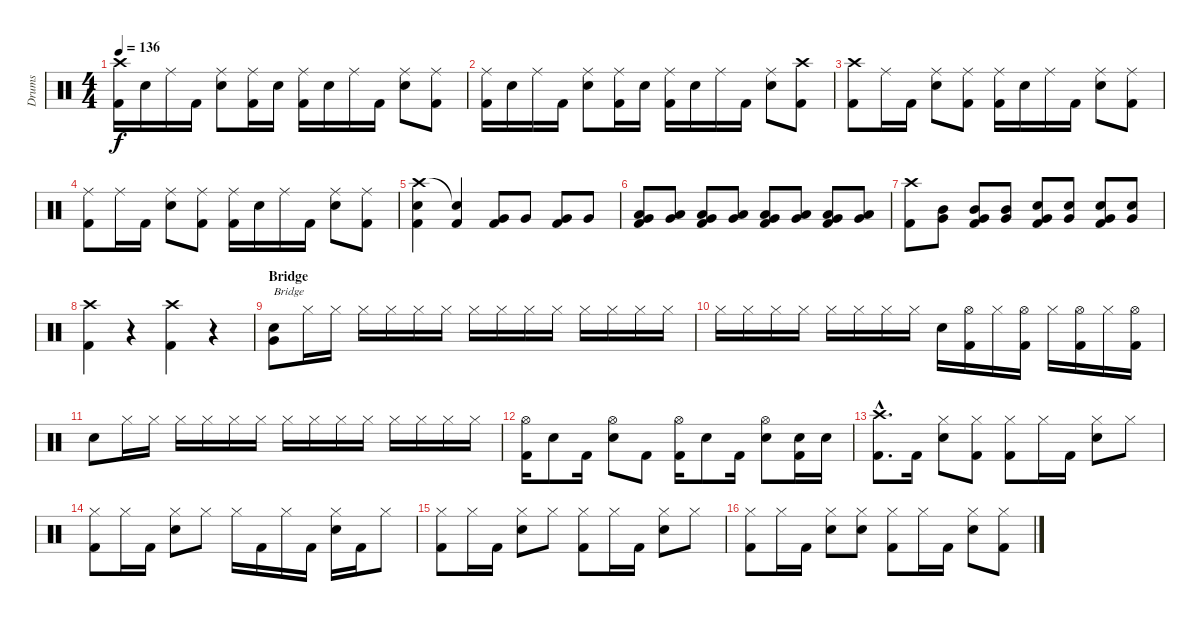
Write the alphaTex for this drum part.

\track ("Drums" "Drums") {instrument percussion}
\staff {score}
\articulation defaults
\ts (4 4)
\tempo 136
\clef neutral
\ks c
("Crash high (hit)" "Kick (hit) 2").16{dy f} "Electric Snare (hit)".16 "Ride (middle)".16 "Kick (hit) 2".16 ("Ride (middle)" "Electric Snare (hit)").8 ("Ride (middle)" "Kick (hit) 2").16 "Electric Snare (hit)".16 ("Ride (middle)" "Kick (hit) 2").16 "Electric Snare (hit)".16 "Ride (middle)".16 "Kick (hit) 2".16 ("Ride (middle)" "Electric Snare (hit)").8 ("Ride (middle)" "Kick (hit) 2").8 |
("Ride (middle)" "Kick (hit) 2").16 "Electric Snare (hit)".16 "Ride (middle)".16 "Kick (hit) 2".16 ("Ride (middle)" "Electric Snare (hit)").8 ("Ride (middle)" "Kick (hit) 2").16 "Electric Snare (hit)".16 ("Ride (middle)" "Kick (hit) 2").16 "Electric Snare (hit)".16 "Ride (middle)".16 "Kick (hit) 2".16 ("Ride (middle)" "Electric Snare (hit)").8 ("Crash high (hit)" "Kick (hit) 2").8 |
("Crash high (hit)" "Kick (hit) 2").8 "Ride (middle)".16 "Kick (hit) 2".16 ("Ride (middle)" "Electric Snare (hit)").8 ("Ride (middle)" "Kick (hit) 2").8 ("Ride (middle)" "Kick (hit) 2").16 "Electric Snare (hit)".16 "Ride (middle)".16 "Kick (hit) 2".16 ("Ride (middle)" "Electric Snare (hit)").8 ("Ride (middle)" "Kick (hit) 2").8 |
("Ride (middle)" "Kick (hit) 2").8 "Ride (middle)".16 "Kick (hit) 2".16 ("Ride (middle)" "Electric Snare (hit)").8 ("Ride (middle)" "Kick (hit) 2").8 ("Ride (middle)" "Kick (hit) 2").16 "Electric Snare (hit)".16 "Ride (middle)".16 "Kick (hit) 2".16 ("Ride (middle)" "Electric Snare (hit)").8 ("Ride (middle)" "Kick (hit) 2").8 |
("Crash high (hit)" "Electric Snare (hit)" "Kick (hit) 2").4 ("Snare (hit)"{t} "Kick (hit) 2").4 ("Very Low Tom (hit)" "Kick (hit) 2").8 "Very Low Tom (hit)".8 ("Very Low Tom (hit)" "Kick (hit) 2").8 "Very Low Tom (hit)".8 |
("Low Tom (hit)" "Very Low Tom (hit)" "Kick (hit) 2").8 ("Low Tom (hit)" "Very Low Tom (hit)").8 ("Low Tom (hit)" "Very Low Tom (hit)" "Kick (hit) 2").8 ("Low Tom (hit)" "Very Low Tom (hit)").8 ("Low Tom (hit)" "Very Low Tom (hit)" "Kick (hit) 2").8 ("Low Tom (hit)" "Very Low Tom (hit)").8 ("Low Tom (hit)" "Very Low Tom (hit)" "Kick (hit) 2").8 ("Low Tom (hit)" "Very Low Tom (hit)").8 |
("Crash high (hit)" "Kick (hit) 2").8 ("Mid Tom (hit)" "Very Low Tom (hit)").8 ("Mid Tom (hit)" "Very Low Tom (hit)" "Kick (hit) 2").8 ("Mid Tom (hit)" "Very Low Tom (hit)").8 ("Electric Snare (hit)" "Very Low Tom (hit)" "Kick (hit) 2").8 ("Electric Snare (hit)" "Very Low Tom (hit)").8 ("Electric Snare (hit)" "Very Low Tom (hit)" "Kick (hit) 2").8 ("Electric Snare (hit)" "Very Low Tom (hit)").8 |
("Crash high (hit)" "Kick (hit) 2").4 r.4 ("Crash high (hit)" "Kick (hit) 2").4 r.4 |
\section ("" "Bridge")
("Electric Snare (hit)" "Very Low Tom (hit)").8{txt "Bridge"} "Hi-Hat (closed)".16 "Hi-Hat (closed)".16 "Hi-Hat (closed)".16 "Hi-Hat (closed)".16 "Hi-Hat (closed)".16 "Hi-Hat (closed)".16 "Hi-Hat (closed)".16 "Hi-Hat (closed)".16 "Hi-Hat (closed)".16 "Hi-Hat (closed)".16 "Hi-Hat (closed)".16 "Hi-Hat (closed)".16 "Hi-Hat (closed)".16 "Hi-Hat (closed)".16 |
"Hi-Hat (closed)".16 "Hi-Hat (closed)".16 "Hi-Hat (closed)".16 "Hi-Hat (closed)".16 "Hi-Hat (closed)".16 "Hi-Hat (closed)".16 "Hi-Hat (closed)".16 "Hi-Hat (closed)".16 "Electric Snare (hit)".16 ("Hi-Hat (open)" "Kick (hit) 2").16 "Hi-Hat (closed)".16 ("Hi-Hat (open)" "Kick (hit) 2").16 "Hi-Hat (closed)".16 ("Hi-Hat (open)" "Kick (hit) 2").16 "Hi-Hat (closed)".16 ("Hi-Hat (open)" "Kick (hit) 2").16 |
"Electric Snare (hit)".8 "Hi-Hat (closed)".16 "Hi-Hat (closed)".16 "Hi-Hat (closed)".16 "Hi-Hat (closed)".16 "Hi-Hat (closed)".16 "Hi-Hat (closed)".16 "Hi-Hat (closed)".16 "Hi-Hat (closed)".16 "Hi-Hat (closed)".16 "Hi-Hat (closed)".16 "Hi-Hat (closed)".16 "Hi-Hat (closed)".16 "Hi-Hat (closed)".16 "Hi-Hat (closed)".16 |
("Hi-Hat (open)" "Kick (hit) 2").16 "Electric Snare (hit)".8 "Kick (hit) 2".16 ("Hi-Hat (open)" "Electric Snare (hit)").8 "Kick (hit) 2".8 ("Hi-Hat (open)" "Kick (hit) 2").16 "Electric Snare (hit)".8 "Kick (hit) 2".16 ("Hi-Hat (open)" "Electric Snare (hit)").8 ("Electric Snare (hit)" "Kick (hit) 2").16 "Electric Snare (hit)".16 |
("Crash high (hit)"{hac} "Kick (hit) 2"{hac}).8{d} "Kick (hit) 2".16 ("Hi-Hat (closed)" "Electric Snare (hit)").8 ("Hi-Hat (closed)" "Kick (hit) 2").8 ("Hi-Hat (closed)" "Kick (hit) 2").8 "Hi-Hat (closed)".16 "Kick (hit) 2".16 ("Hi-Hat (closed)" "Electric Snare (hit)").8 "Hi-Hat (closed)".8 |
("Hi-Hat (closed)" "Kick (hit) 2").8 "Hi-Hat (closed)".16 "Kick (hit) 2".16 ("Hi-Hat (closed)" "Electric Snare (hit)").8 "Hi-Hat (closed)".8 "Hi-Hat (closed)".16 "Kick (hit) 2".16 "Hi-Hat (closed)".16 "Kick (hit) 2".16 ("Hi-Hat (closed)" "Electric Snare (hit)").16 "Kick (hit) 2".16 "Hi-Hat (closed)".8 |
("Hi-Hat (closed)" "Kick (hit) 2").8 "Hi-Hat (closed)".16 "Kick (hit) 2".16 ("Hi-Hat (closed)" "Electric Snare (hit)").8 "Hi-Hat (closed)".8 ("Hi-Hat (closed)" "Kick (hit) 2").8 "Hi-Hat (closed)".16 "Kick (hit) 2".16 ("Hi-Hat (closed)" "Electric Snare (hit)").8 "Hi-Hat (closed)".8 |
("Hi-Hat (closed)" "Kick (hit) 2").8 "Hi-Hat (closed)".16 "Kick (hit) 2".16 ("Hi-Hat (closed)" "Electric Snare (hit)").8 ("Hi-Hat (closed)" "Electric Snare (hit)").8 ("Hi-Hat (closed)" "Kick (hit) 2").8 "Hi-Hat (closed)".16 "Kick (hit) 2".16 ("Hi-Hat (closed)" "Electric Snare (hit)").8 ("Hi-Hat (closed)" "Kick (hit) 2").8
